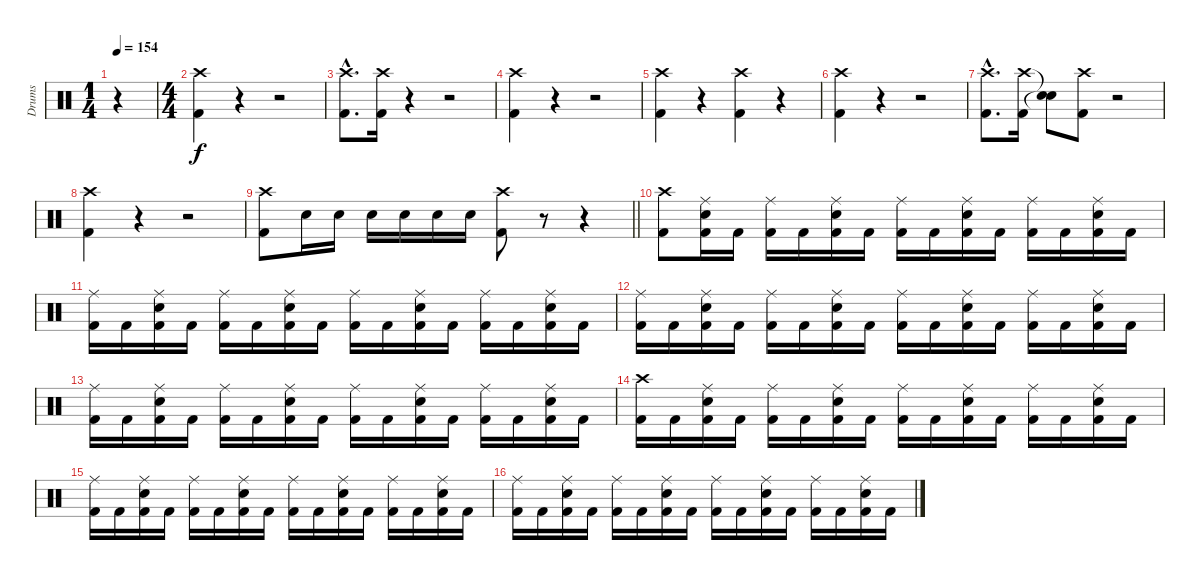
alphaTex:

\track ("Drums" "Drums") {instrument percussion}
\staff {score}
\articulation defaults
\ts (1 4)
\tempo 154
\clef neutral
\ks c
r.4{dy f} |
\ts (4 4)
("Crash high (hit)" "Kick (hit) 2").4 r.4 r.2 |
("Crash high (hit)"{hac} "Kick (hit) 2"{hac}).8{d} ("Crash high (hit)" "Kick (hit) 2").16 r.4 r.2 |
("Crash high (hit)" "Kick (hit) 2").4 r.4 r.2 |
("Crash high (hit)" "Kick (hit) 2").4 r.4 ("Crash high (hit)" "Kick (hit) 2").4 r.4 |
("Crash high (hit)" "Kick (hit) 2").4 r.4 r.2 |
("Crash high (hit)"{hac} "Kick (hit) 2"{hac}).8{d} ("Crash high (hit)" "Kick (hit) 2").16 ("Snare (hit)"{t} "Snare (hit)"{t}).8 ("Crash high (hit)" "Kick (hit) 2").8 r.2 |
("Crash high (hit)" "Kick (hit) 2").4 r.4 r.2 |
\barLineRight lightlight
("Crash high (hit)" "Kick (hit) 2").8 "Snare (hit) 2".16 "Snare (hit) 2".16 "Snare (hit) 2".16 "Snare (hit) 2".16 "Snare (hit) 2".16 "Snare (hit) 2".16 ("Crash high (hit)" "Kick (hit) 2").8 r.8 r.4 |
("Crash high (hit)" "Kick (hit) 2").8 ("Ride (middle)" "Snare (hit) 2" "Kick (hit) 2").16 "Kick (hit) 2".16 ("Ride (middle)" "Kick (hit) 2").16 "Kick (hit) 2".16 ("Ride (middle)" "Snare (hit) 2" "Kick (hit) 2").16 "Kick (hit) 2".16 ("Ride (middle)" "Kick (hit) 2").16 "Kick (hit) 2".16 ("Ride (middle)" "Snare (hit) 2" "Kick (hit) 2").16 "Kick (hit) 2".16 ("Ride (middle)" "Kick (hit) 2").16 "Kick (hit) 2".16 ("Ride (middle)" "Snare (hit) 2" "Kick (hit) 2").16 "Kick (hit) 2".16 |
("Ride (middle)" "Kick (hit) 2").16 "Kick (hit) 2".16 ("Ride (middle)" "Snare (hit) 2" "Kick (hit) 2").16 "Kick (hit) 2".16 ("Ride (middle)" "Kick (hit) 2").16 "Kick (hit) 2".16 ("Ride (middle)" "Snare (hit) 2" "Kick (hit) 2").16 "Kick (hit) 2".16 ("Ride (middle)" "Kick (hit) 2").16 "Kick (hit) 2".16 ("Ride (middle)" "Snare (hit) 2" "Kick (hit) 2").16 "Kick (hit) 2".16 ("Ride (middle)" "Kick (hit) 2").16 "Kick (hit) 2".16 ("Ride (middle)" "Snare (hit) 2" "Kick (hit) 2").16 "Kick (hit) 2".16 |
("Ride (middle)" "Kick (hit) 2").16 "Kick (hit) 2".16 ("Ride (middle)" "Snare (hit) 2" "Kick (hit) 2").16 "Kick (hit) 2".16 ("Ride (middle)" "Kick (hit) 2").16 "Kick (hit) 2".16 ("Ride (middle)" "Snare (hit) 2" "Kick (hit) 2").16 "Kick (hit) 2".16 ("Ride (middle)" "Kick (hit) 2").16 "Kick (hit) 2".16 ("Ride (middle)" "Snare (hit) 2" "Kick (hit) 2").16 "Kick (hit) 2".16 ("Ride (middle)" "Kick (hit) 2").16 "Kick (hit) 2".16 ("Ride (middle)" "Snare (hit) 2" "Kick (hit) 2").16 "Kick (hit) 2".16 |
("Ride (middle)" "Kick (hit) 2").16 "Kick (hit) 2".16 ("Ride (middle)" "Snare (hit) 2" "Kick (hit) 2").16 "Kick (hit) 2".16 ("Ride (middle)" "Kick (hit) 2").16 "Kick (hit) 2".16 ("Ride (middle)" "Snare (hit) 2" "Kick (hit) 2").16 "Kick (hit) 2".16 ("Ride (middle)" "Kick (hit) 2").16 "Kick (hit) 2".16 ("Ride (middle)" "Snare (hit) 2" "Kick (hit) 2").16 "Kick (hit) 2".16 ("Ride (middle)" "Kick (hit) 2").16 "Kick (hit) 2".16 ("Ride (middle)" "Snare (hit) 2" "Kick (hit) 2").16 "Kick (hit) 2".16 |
("Crash high (hit)" "Kick (hit) 2").16 "Kick (hit) 2".16 ("Ride (middle)" "Snare (hit) 2" "Kick (hit) 2").16 "Kick (hit) 2".16 ("Ride (middle)" "Kick (hit) 2").16 "Kick (hit) 2".16 ("Ride (middle)" "Snare (hit) 2" "Kick (hit) 2").16 "Kick (hit) 2".16 ("Ride (middle)" "Kick (hit) 2").16 "Kick (hit) 2".16 ("Ride (middle)" "Snare (hit) 2" "Kick (hit) 2").16 "Kick (hit) 2".16 ("Ride (middle)" "Kick (hit) 2").16 "Kick (hit) 2".16 ("Ride (middle)" "Snare (hit) 2" "Kick (hit) 2").16 "Kick (hit) 2".16 |
("Ride (middle)" "Kick (hit) 2").16 "Kick (hit) 2".16 ("Ride (middle)" "Snare (hit) 2" "Kick (hit) 2").16 "Kick (hit) 2".16 ("Ride (middle)" "Kick (hit) 2").16 "Kick (hit) 2".16 ("Ride (middle)" "Snare (hit) 2" "Kick (hit) 2").16 "Kick (hit) 2".16 ("Ride (middle)" "Kick (hit) 2").16 "Kick (hit) 2".16 ("Ride (middle)" "Snare (hit) 2" "Kick (hit) 2").16 "Kick (hit) 2".16 ("Ride (middle)" "Kick (hit) 2").16 "Kick (hit) 2".16 ("Ride (middle)" "Snare (hit) 2" "Kick (hit) 2").16 "Kick (hit) 2".16 |
("Ride (middle)" "Kick (hit) 2").16 "Kick (hit) 2".16 ("Ride (middle)" "Snare (hit) 2" "Kick (hit) 2").16 "Kick (hit) 2".16 ("Ride (middle)" "Kick (hit) 2").16 "Kick (hit) 2".16 ("Ride (middle)" "Snare (hit) 2" "Kick (hit) 2").16 "Kick (hit) 2".16 ("Ride (middle)" "Kick (hit) 2").16 "Kick (hit) 2".16 ("Ride (middle)" "Snare (hit) 2" "Kick (hit) 2").16 "Kick (hit) 2".16 ("Ride (middle)" "Kick (hit) 2").16 "Kick (hit) 2".16 ("Ride (middle)" "Snare (hit) 2" "Kick (hit) 2").16 "Kick (hit) 2".16
